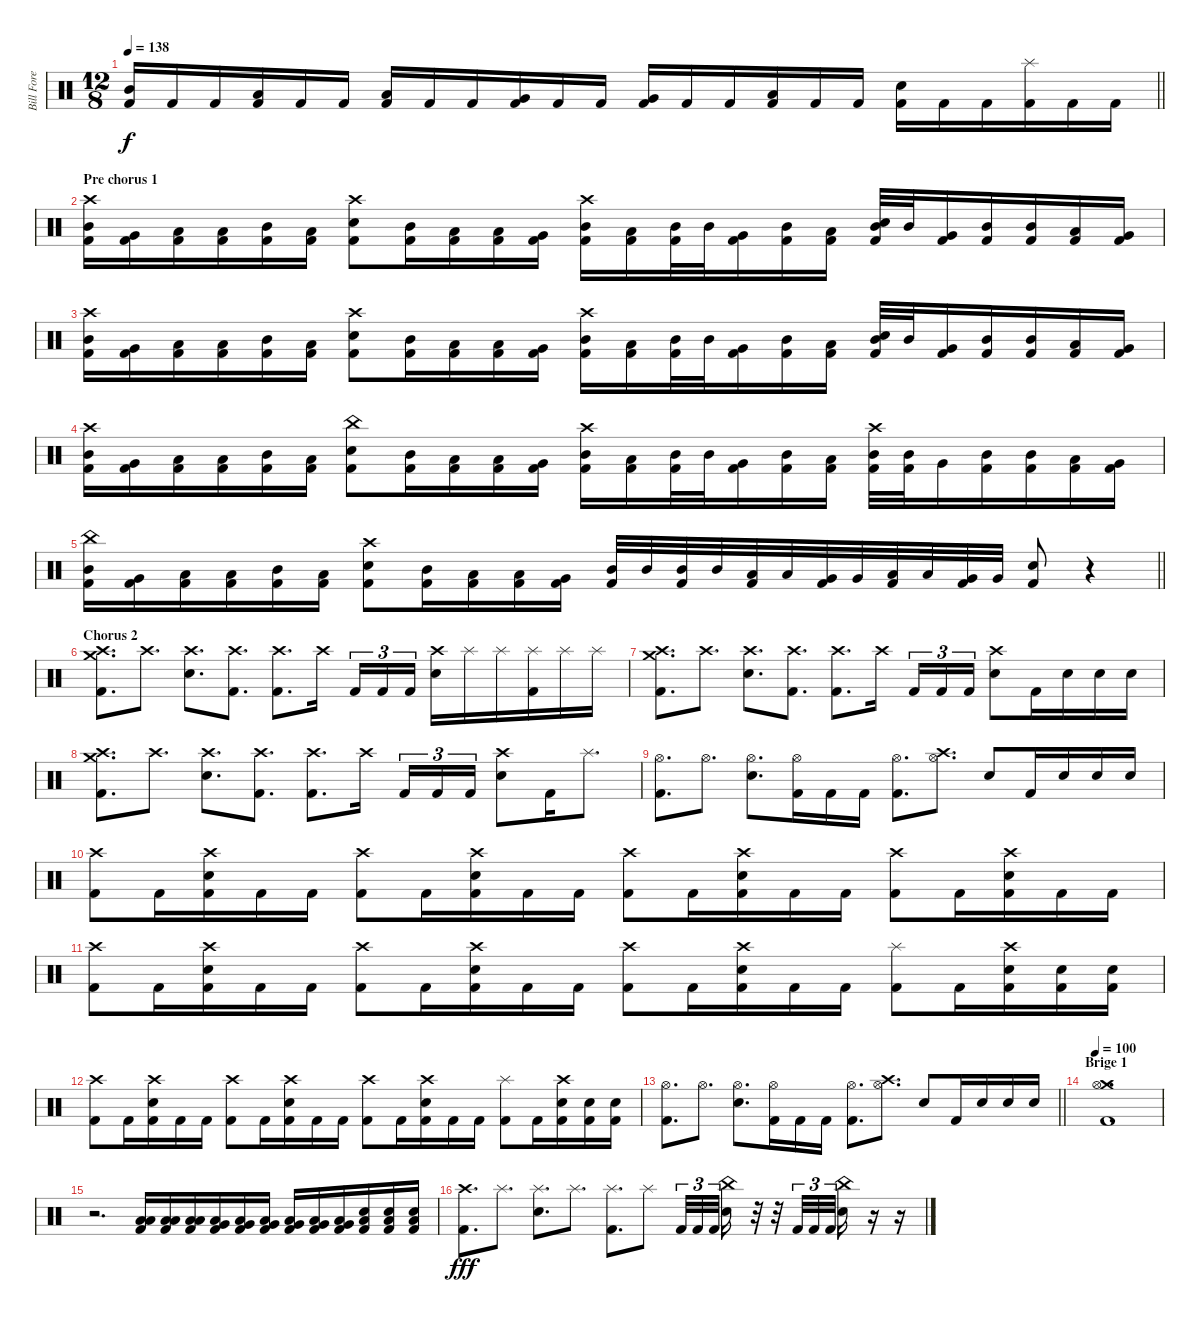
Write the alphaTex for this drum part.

\track ("Bill Fore" "Bill Fore") {instrument percussion}
\staff {score}
\articulation defaults
\ts (12 8)
\tempo 138
\clef neutral
\barLineRight lightlight
\ks c
("Mid Tom (hit)" "Kick (hit) 2").16{dy f} "Kick (hit) 2".16 "Kick (hit) 2".16 ("Low Tom (hit)" "Kick (hit) 2").16 "Kick (hit) 2".16 "Kick (hit) 2".16 ("Low Tom (hit)" "Kick (hit) 2").16 "Kick (hit) 2".16 "Kick (hit) 2".16 ("Very Low Tom (hit)" "Kick (hit) 2").16 "Kick (hit) 2".16 "Kick (hit) 2".16 ("Very Low Tom (hit)" "Kick (hit) 2").16 "Kick (hit) 2".16 "Kick (hit) 2".16 ("Low Floor Tom (hit)" "Kick (hit) 2").16 "Kick (hit) 2".16 "Kick (hit) 2".16 ("Electric Snare (hit)" "Kick (hit) 2").16 "Kick (hit) 2".16 "Kick (hit) 2".16 ("Splash (hit)" "Kick (hit) 2").16 "Kick (hit) 2".16 "Kick (hit) 2".16 |
\section ("" "Pre chorus 1")
("Crash high (hit)" "Mid Tom (hit)" "Kick (hit) 2").16 ("Very Low Tom (hit)" "Kick (hit) 2").16 ("Low Tom (hit)" "Kick (hit) 2").16 ("Low Floor Tom (hit)" "Kick (hit) 2").16 ("Mid Tom (hit)" "Kick (hit) 2").16 ("Low Floor Tom (hit)" "Kick (hit) 2").16 ("Crash high (hit)" "Electric Snare (hit)" "Kick (hit) 2").8 ("Mid Tom (hit)" "Kick (hit) 2").16 ("Low Floor Tom (hit)" "Kick (hit) 2").16 ("Low Tom (hit)" "Kick (hit) 2").16 ("Very Low Tom (hit)" "Kick (hit) 2").16 ("Crash high (hit)" "Mid Tom (hit)" "Kick (hit) 2").16 ("Low Floor Tom (hit)" "Kick (hit) 2").16 ("Mid Tom (hit)" "Kick (hit) 2").32 "Mid Tom (hit)".32 ("Very Low Tom (hit)" "Kick (hit) 2").16 ("Mid Tom (hit)" "Kick (hit) 2").16 ("Low Floor Tom (hit)" "Kick (hit) 2").16 ("Mid Tom (hit)" "Electric Snare (hit)" "Kick (hit) 2").32 "Mid Tom (hit)".32 ("Very Low Tom (hit)" "Kick (hit) 2").16 ("Mid Tom (hit)" "Kick (hit) 2").16 ("Mid Tom (hit)" "Kick (hit) 2").16 ("Low Floor Tom (hit)" "Kick (hit) 2").16 ("Very Low Tom (hit)" "Kick (hit) 2").16 |
("Crash high (hit)" "Mid Tom (hit)" "Kick (hit) 2").16 ("Very Low Tom (hit)" "Kick (hit) 2").16 ("Low Tom (hit)" "Kick (hit) 2").16 ("Low Floor Tom (hit)" "Kick (hit) 2").16 ("Mid Tom (hit)" "Kick (hit) 2").16 ("Low Floor Tom (hit)" "Kick (hit) 2").16 ("Crash high (hit)" "Electric Snare (hit)" "Kick (hit) 2").8 ("Mid Tom (hit)" "Kick (hit) 2").16 ("Low Floor Tom (hit)" "Kick (hit) 2").16 ("Low Tom (hit)" "Kick (hit) 2").16 ("Very Low Tom (hit)" "Kick (hit) 2").16 ("Crash high (hit)" "Mid Tom (hit)" "Kick (hit) 2").16 ("Low Floor Tom (hit)" "Kick (hit) 2").16 ("Mid Tom (hit)" "Kick (hit) 2").32 "Mid Tom (hit)".32 ("Very Low Tom (hit)" "Kick (hit) 2").16 ("Mid Tom (hit)" "Kick (hit) 2").16 ("Low Floor Tom (hit)" "Kick (hit) 2").16 ("Mid Tom (hit)" "Electric Snare (hit)" "Kick (hit) 2").32 "Mid Tom (hit)".32 ("Very Low Tom (hit)" "Kick (hit) 2").16 ("Mid Tom (hit)" "Kick (hit) 2").16 ("Mid Tom (hit)" "Kick (hit) 2").16 ("Low Floor Tom (hit)" "Kick (hit) 2").16 ("Very Low Tom (hit)" "Kick (hit) 2").16 |
("Crash high (hit)" "Mid Tom (hit)" "Kick (hit) 2").16 ("Very Low Tom (hit)" "Kick (hit) 2").16 ("Low Tom (hit)" "Kick (hit) 2").16 ("Low Floor Tom (hit)" "Kick (hit) 2").16 ("Mid Tom (hit)" "Kick (hit) 2").16 ("Low Floor Tom (hit)" "Kick (hit) 2").16 ("China (hit)" "Electric Snare (hit)" "Kick (hit) 2").8 ("Mid Tom (hit)" "Kick (hit) 2").16 ("Low Floor Tom (hit)" "Kick (hit) 2").16 ("Low Tom (hit)" "Kick (hit) 2").16 ("Very Low Tom (hit)" "Kick (hit) 2").16 ("Crash high (hit)" "Mid Tom (hit)" "Kick (hit) 2").16 ("Low Floor Tom (hit)" "Kick (hit) 2").16 ("Mid Tom (hit)" "Kick (hit) 2").32 "Mid Tom (hit)".32 ("Very Low Tom (hit)" "Kick (hit) 2").16 ("Mid Tom (hit)" "Kick (hit) 2").16 ("Low Floor Tom (hit)" "Kick (hit) 2").16 ("Crash high (hit)" "Mid Tom (hit)" "Kick (hit) 2").32 ("Mid Tom (hit)" "Kick (hit) 2").32 "Very Low Tom (hit)".16 ("Mid Tom (hit)" "Kick (hit) 2").16 ("Mid Tom (hit)" "Kick (hit) 2").16 ("Low Floor Tom (hit)" "Kick (hit) 2").16 ("Very Low Tom (hit)" "Kick (hit) 2").16 |
\barLineRight lightlight
("China (hit)" "Mid Tom (hit)" "Kick (hit) 2").16 ("Very Low Tom (hit)" "Kick (hit) 2").16 ("Low Tom (hit)" "Kick (hit) 2").16 ("Low Floor Tom (hit)" "Kick (hit) 2").16 ("Mid Tom (hit)" "Kick (hit) 2").16 ("Low Floor Tom (hit)" "Kick (hit) 2").16 ("Crash high (hit)" "Electric Snare (hit)" "Kick (hit) 2").8 ("Mid Tom (hit)" "Kick (hit) 2").16 ("Low Floor Tom (hit)" "Kick (hit) 2").16 ("Low Tom (hit)" "Kick (hit) 2").16 ("Very Low Tom (hit)" "Kick (hit) 2").16 ("Mid Tom (hit)" "Kick (hit) 2").32 "Mid Tom (hit)".32 ("Mid Tom (hit)" "Kick (hit) 2").32 "Mid Tom (hit)".32 ("Low Tom (hit)" "Kick (hit) 2").32 "Low Tom (hit)".32 ("Very Low Tom (hit)" "Kick (hit) 2").32 "Very Low Tom (hit)".32 ("Low Tom (hit)" "Kick (hit) 2").32 "Low Tom (hit)".32 ("Very Low Tom (hit)" "Kick (hit) 2").32 "Very Low Tom (hit)".32 ("Electric Snare (hit)" "Kick (hit) 2").8 r.4 |
\section ("" "Chorus 2")
("Crash high (hit)" "Crash medium (hit)" "Kick (hit) 2").8{d} "Crash high (hit)".8{d} ("Crash high (hit)" "Electric Snare (hit)").8{d} ("Crash high (hit)" "Kick (hit) 2").8{d} ("Crash high (hit)" "Kick (hit) 2").8{d} "Crash high (hit)".16{beam splitsecondary} "Kick (hit) 2".16{tu (3 2)} "Kick (hit) 2".16{tu (3 2)} "Kick (hit) 2".16{tu (3 2)} ("Crash high (hit)" "Electric Snare (hit)").16 "Splash (hit)".16 "Splash (hit)".16 ("Splash (hit)" "Kick (hit) 2").16 "Splash (hit)".16 "Splash (hit)".16 |
("Crash high (hit)" "Crash medium (hit)" "Kick (hit) 2").8{d} "Crash high (hit)".8{d} ("Crash high (hit)" "Electric Snare (hit)").8{d} ("Crash high (hit)" "Kick (hit) 2").8{d} ("Crash high (hit)" "Kick (hit) 2").8{d} "Crash high (hit)".16{beam splitsecondary} "Kick (hit) 2".16{tu (3 2)} "Kick (hit) 2".16{tu (3 2)} "Kick (hit) 2".16{tu (3 2)} ("Crash high (hit)" "Electric Snare (hit)").8 "Kick (hit) 2".16 "Electric Snare (hit)".16 "Electric Snare (hit)".16 "Electric Snare (hit)".16 |
("Crash high (hit)" "Crash medium (hit)" "Kick (hit) 2").8{d} "Crash high (hit)".8{d} ("Crash high (hit)" "Electric Snare (hit)").8{d} ("Crash high (hit)" "Kick (hit) 2").8{d} ("Crash high (hit)" "Kick (hit) 2").8{d} "Crash high (hit)".16{beam splitsecondary} "Kick (hit) 2".16{tu (3 2)} "Kick (hit) 2".16{tu (3 2)} "Kick (hit) 2".16{tu (3 2)} ("Crash high (hit)" "Electric Snare (hit)").8 "Kick (hit) 2".16 "Splash (hit)".8{d} |
("Hi-Hat (open)" "Kick (hit) 2").8{d} "Hi-Hat (open)".8{d} ("Hi-Hat (open)" "Electric Snare (hit)").8{d} ("Hi-Hat (open)" "Kick (hit) 2").16 "Kick (hit) 2".16 "Kick (hit) 2".16 ("Hi-Hat (open)" "Kick (hit) 2").8{d} ("Crash high (hit)" "Hi-Hat (open)").8{d} "Electric Snare (hit)".8 "Kick (hit) 2".16 "Electric Snare (hit)".16 "Electric Snare (hit)".16 "Electric Snare (hit)".16 |
("Crash high (hit)" "Kick (hit) 2").8 "Kick (hit) 2".16 ("Crash high (hit)" "Electric Snare (hit)" "Kick (hit) 2").16 "Kick (hit) 2".16 "Kick (hit) 2".16 ("Crash high (hit)" "Kick (hit) 2").8 "Kick (hit) 2".16 ("Crash high (hit)" "Electric Snare (hit)" "Kick (hit) 2").16 "Kick (hit) 2".16 "Kick (hit) 2".16 ("Crash high (hit)" "Kick (hit) 2").8 "Kick (hit) 2".16 ("Crash high (hit)" "Electric Snare (hit)" "Kick (hit) 2").16 "Kick (hit) 2".16 "Kick (hit) 2".16 ("Crash high (hit)" "Kick (hit) 2").8 "Kick (hit) 2".16 ("Crash high (hit)" "Electric Snare (hit)" "Kick (hit) 2").16 "Kick (hit) 2".16 "Kick (hit) 2".16 |
("Crash high (hit)" "Kick (hit) 2").8 "Kick (hit) 2".16 ("Crash high (hit)" "Electric Snare (hit)" "Kick (hit) 2").16 "Kick (hit) 2".16 "Kick (hit) 2".16 ("Crash high (hit)" "Kick (hit) 2").8 "Kick (hit) 2".16 ("Crash high (hit)" "Electric Snare (hit)" "Kick (hit) 2").16 "Kick (hit) 2".16 "Kick (hit) 2".16 ("Crash high (hit)" "Kick (hit) 2").8 "Kick (hit) 2".16 ("Crash high (hit)" "Electric Snare (hit)" "Kick (hit) 2").16 "Kick (hit) 2".16 "Kick (hit) 2".16 ("Splash (hit)" "Kick (hit) 2").8 "Kick (hit) 2".16 ("Crash high (hit)" "Electric Snare (hit)" "Kick (hit) 2").16 ("Electric Snare (hit)" "Kick (hit) 2").16 ("Electric Snare (hit)" "Kick (hit) 2").16 |
("Crash high (hit)" "Kick (hit) 2").8 "Kick (hit) 2".16 ("Crash high (hit)" "Electric Snare (hit)" "Kick (hit) 2").16 "Kick (hit) 2".16 "Kick (hit) 2".16 ("Crash high (hit)" "Kick (hit) 2").8 "Kick (hit) 2".16 ("Crash high (hit)" "Electric Snare (hit)" "Kick (hit) 2").16 "Kick (hit) 2".16 "Kick (hit) 2".16 ("Crash high (hit)" "Kick (hit) 2").8 "Kick (hit) 2".16 ("Crash high (hit)" "Electric Snare (hit)" "Kick (hit) 2").16 "Kick (hit) 2".16 "Kick (hit) 2".16 ("Splash (hit)" "Kick (hit) 2").8 "Kick (hit) 2".16 ("Crash high (hit)" "Electric Snare (hit)" "Kick (hit) 2").16 ("Electric Snare (hit)" "Kick (hit) 2").16 ("Electric Snare (hit)" "Kick (hit) 2").16 |
\barLineRight lightlight
("Hi-Hat (open)" "Kick (hit) 2").8{d} "Hi-Hat (open)".8{d} ("Hi-Hat (open)" "Electric Snare (hit)").8{d} ("Hi-Hat (open)" "Kick (hit) 2").16 "Kick (hit) 2".16 "Kick (hit) 2".16 ("Hi-Hat (open)" "Kick (hit) 2").8{d} ("Crash high (hit)" "Hi-Hat (open)").8{d} "Electric Snare (hit)".8 "Kick (hit) 2".16 "Electric Snare (hit)".16 "Electric Snare (hit)".16 "Electric Snare (hit)".16 |
\section ("" "Brige 1")
\tempo 100
("Crash medium (hit)" "Hi-Hat (open)" "Kick (hit) 2").1{d} |
r.2{d} ("Low Floor Tom (hit)" "Low Tom (hit)" "Kick (hit) 2").16 ("Low Floor Tom (hit)" "Low Tom (hit)" "Kick (hit) 2").16 ("Low Floor Tom (hit)" "Low Tom (hit)" "Kick (hit) 2").16 ("Low Floor Tom (hit)" "Very Low Tom (hit)" "Kick (hit) 2").16 ("Low Floor Tom (hit)" "Very Low Tom (hit)" "Kick (hit) 2").16 ("Low Floor Tom (hit)" "Very Low Tom (hit)" "Kick (hit) 2").16 ("Very Low Tom (hit)" "Low Tom (hit)" "Kick (hit) 2").16 ("Very Low Tom (hit)" "Low Tom (hit)" "Kick (hit) 2").16 ("Very Low Tom (hit)" "Low Tom (hit)" "Kick (hit) 2").16 ("Low Floor Tom (hit)" "Electric Snare (hit)" "Kick (hit) 2").16 ("Low Floor Tom (hit)" "Electric Snare (hit)" "Kick (hit) 2").16 ("Low Floor Tom (hit)" "Electric Snare (hit)" "Kick (hit) 2").16 |
("Crash high (hit)" "Kick (hit) 2").8{d dy fff} "Splash (hit)".8{d} ("Splash (hit)" "Electric Snare (hit)").8{d} "Splash (hit)".8{d} ("Splash (hit)" "Kick (hit) 2").8{d} "Splash (hit)".8 "Kick (hit) 2".32{tu (3 2)} "Kick (hit) 2".32{tu (3 2)} "Kick (hit) 2".32{tu (3 2)} ("China (hit)" "Electric Snare (hit)").16 r.32 r.32 "Kick (hit) 2".32{tu (3 2)} "Kick (hit) 2".32{tu (3 2)} "Kick (hit) 2".32{tu (3 2) beam splitsecondary} ("China (hit)" "Electric Snare (hit)").16 r.16 r.16
